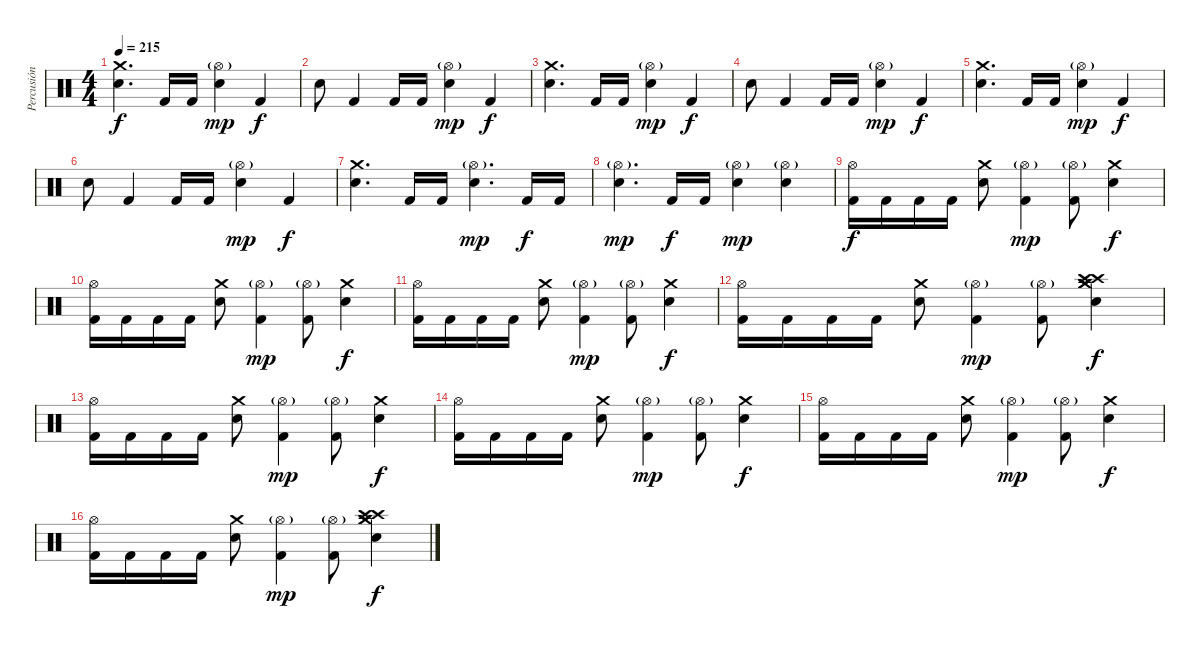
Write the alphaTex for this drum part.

\track ("Percusión" "Percusión") {instrument percussion}
\staff {score}
\articulation defaults
\ts (4 4)
\tempo 215
\clef neutral
\ks c
("Crash medium (hit)" "Snare (hit) 2").4{d dy f} "Kick (hit) 2".16 "Kick (hit) 2".16 ("Hi-Hat (open)"{g} "Snare (hit) 2").4{dy mp} "Kick (hit) 2".4{dy f} |
"Snare (hit) 2".8 "Kick (hit) 2".4 "Kick (hit) 2".16 "Kick (hit) 2".16 ("Hi-Hat (open)"{g} "Snare (hit) 2").4{dy mp} "Kick (hit) 2".4{dy f} |
("Crash medium (hit)" "Snare (hit) 2").4{d} "Kick (hit) 2".16 "Kick (hit) 2".16 ("Hi-Hat (open)"{g} "Snare (hit) 2").4{dy mp} "Kick (hit) 2".4{dy f} |
"Snare (hit) 2".8 "Kick (hit) 2".4 "Kick (hit) 2".16 "Kick (hit) 2".16 ("Hi-Hat (open)"{g} "Snare (hit) 2").4{dy mp} "Kick (hit) 2".4{dy f} |
("Crash medium (hit)" "Snare (hit) 2").4{d} "Kick (hit) 2".16 "Kick (hit) 2".16 ("Hi-Hat (open)"{g} "Snare (hit) 2").4{dy mp} "Kick (hit) 2".4{dy f} |
"Snare (hit) 2".8 "Kick (hit) 2".4 "Kick (hit) 2".16 "Kick (hit) 2".16 ("Hi-Hat (open)"{g} "Snare (hit) 2").4{dy mp} "Kick (hit) 2".4{dy f} |
("Crash medium (hit)" "Snare (hit) 2").4{d} "Kick (hit) 2".16 "Kick (hit) 2".16 ("Hi-Hat (open)"{g} "Snare (hit) 2").4{d dy mp} "Kick (hit) 2".16{dy f} "Kick (hit) 2".16 |
("Hi-Hat (open)"{g} "Snare (hit) 2").4{d dy mp} "Kick (hit) 2".16{dy f} "Kick (hit) 2".16 ("Hi-Hat (open)"{g} "Snare (hit) 2").4{dy mp} ("Hi-Hat (open)"{g} "Snare (hit) 2").4 |
("Hi-Hat (open)" "Kick (hit) 2").16{dy f} "Kick (hit) 2".16 "Kick (hit) 2".16 "Kick (hit) 2".16 ("Crash medium (hit)" "Snare (hit) 2").8 ("Hi-Hat (open)"{g} "Kick (hit) 2").4{dy mp} ("Hi-Hat (open)"{g} "Kick (hit) 2").8 ("Crash medium (hit)" "Snare (hit) 2").4{dy f} |
("Hi-Hat (open)" "Kick (hit) 2").16 "Kick (hit) 2".16 "Kick (hit) 2".16 "Kick (hit) 2".16 ("Crash medium (hit)" "Snare (hit) 2").8 ("Hi-Hat (open)"{g} "Kick (hit) 2").4{dy mp} ("Hi-Hat (open)"{g} "Kick (hit) 2").8 ("Crash medium (hit)" "Snare (hit) 2").4{dy f} |
("Hi-Hat (open)" "Kick (hit) 2").16 "Kick (hit) 2".16 "Kick (hit) 2".16 "Kick (hit) 2".16 ("Crash medium (hit)" "Snare (hit) 2").8 ("Hi-Hat (open)"{g} "Kick (hit) 2").4{dy mp} ("Hi-Hat (open)"{g} "Kick (hit) 2").8 ("Crash medium (hit)" "Snare (hit) 2").4{dy f} |
("Hi-Hat (open)" "Kick (hit) 2").16 "Kick (hit) 2".16 "Kick (hit) 2".16 "Kick (hit) 2".16 ("Crash medium (hit)" "Snare (hit) 2").8 ("Hi-Hat (open)"{g} "Kick (hit) 2").4{dy mp} ("Hi-Hat (open)"{g} "Kick (hit) 2").8 ("Crash medium (hit)" "Crash high (hit)" "Crash high (hit)" "Crash medium (hit)" "Snare (hit) 2").4{dy f} |
("Hi-Hat (open)" "Kick (hit) 2").16 "Kick (hit) 2".16 "Kick (hit) 2".16 "Kick (hit) 2".16 ("Crash medium (hit)" "Snare (hit) 2").8 ("Hi-Hat (open)"{g} "Kick (hit) 2").4{dy mp} ("Hi-Hat (open)"{g} "Kick (hit) 2").8 ("Crash medium (hit)" "Snare (hit) 2").4{dy f} |
("Hi-Hat (open)" "Kick (hit) 2").16 "Kick (hit) 2".16 "Kick (hit) 2".16 "Kick (hit) 2".16 ("Crash medium (hit)" "Snare (hit) 2").8 ("Hi-Hat (open)"{g} "Kick (hit) 2").4{dy mp} ("Hi-Hat (open)"{g} "Kick (hit) 2").8 ("Crash medium (hit)" "Snare (hit) 2").4{dy f} |
("Hi-Hat (open)" "Kick (hit) 2").16 "Kick (hit) 2".16 "Kick (hit) 2".16 "Kick (hit) 2".16 ("Crash medium (hit)" "Snare (hit) 2").8 ("Hi-Hat (open)"{g} "Kick (hit) 2").4{dy mp} ("Hi-Hat (open)"{g} "Kick (hit) 2").8 ("Crash medium (hit)" "Snare (hit) 2").4{dy f} |
("Hi-Hat (open)" "Kick (hit) 2").16 "Kick (hit) 2".16 "Kick (hit) 2".16 "Kick (hit) 2".16 ("Crash medium (hit)" "Snare (hit) 2").8 ("Hi-Hat (open)"{g} "Kick (hit) 2").4{dy mp} ("Hi-Hat (open)"{g} "Kick (hit) 2").8 ("Crash medium (hit)" "Crash high (hit)" "Crash high (hit)" "Crash medium (hit)" "Snare (hit) 2").4{dy f}
